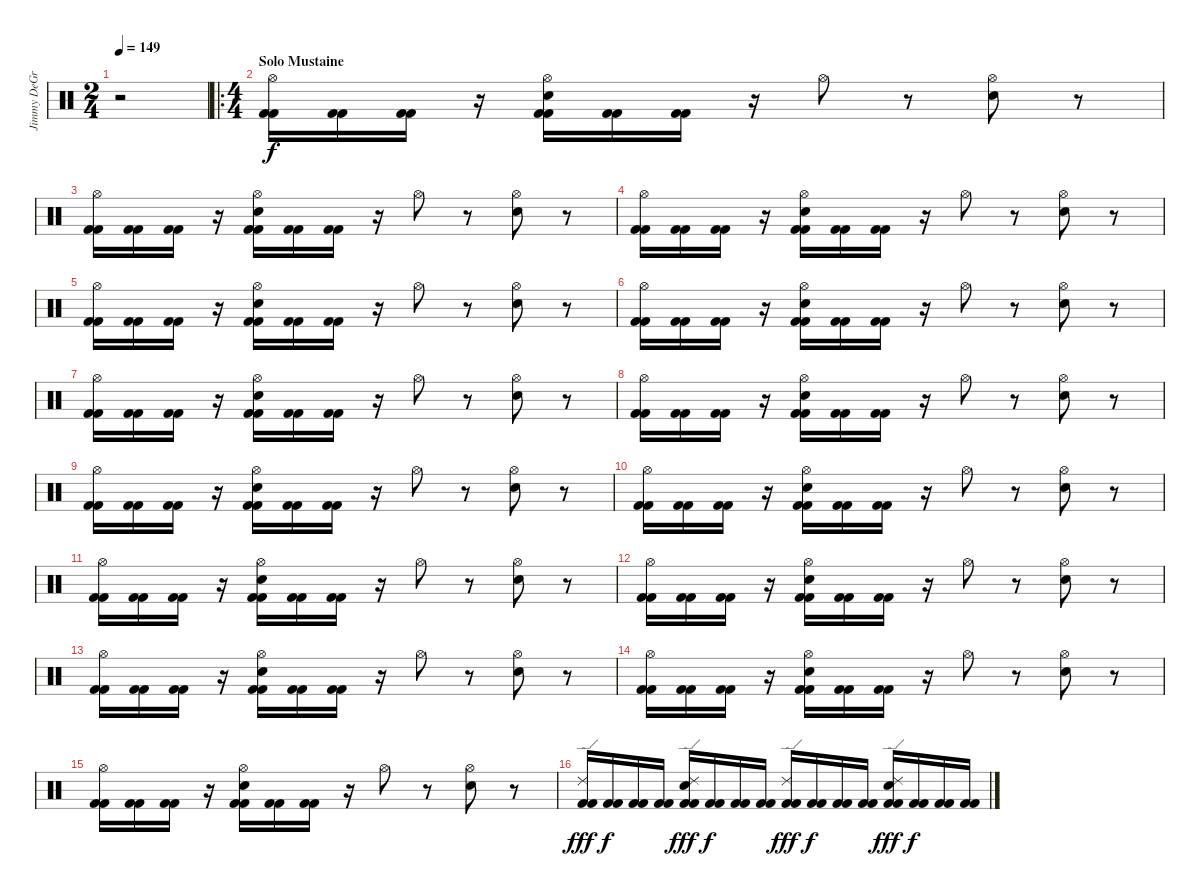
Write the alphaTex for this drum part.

\track ("Jimmy DeGrasso" "Jimmy DeGr") {instrument percussion}
\staff {score}
\articulation defaults
\ts (2 4)
\tempo 149
\clef neutral
\ks c
r.2{dy f} |
\ro
\ts (4 4)
\section ("" "Solo Mustaine")
("Hi-Hat (open)" "Kick (hit) 2" "Kick (hit) 2").16 ("Kick (hit) 2" "Kick (hit) 2").16 ("Kick (hit) 2" "Kick (hit) 2").16 r.16 ("Hi-Hat (open)" "Snare (hit) 2" "Kick (hit) 2" "Kick (hit) 2").16 ("Kick (hit) 2" "Kick (hit) 2").16 ("Kick (hit) 2" "Kick (hit) 2").16 r.16 "Hi-Hat (open)".8 r.8 ("Hi-Hat (open)" "Snare (hit) 2").8 r.8 |
("Hi-Hat (open)" "Kick (hit) 2" "Kick (hit) 2").16 ("Kick (hit) 2" "Kick (hit) 2").16 ("Kick (hit) 2" "Kick (hit) 2").16 r.16 ("Hi-Hat (open)" "Snare (hit) 2" "Kick (hit) 2" "Kick (hit) 2").16 ("Kick (hit) 2" "Kick (hit) 2").16 ("Kick (hit) 2" "Kick (hit) 2").16 r.16 "Hi-Hat (open)".8 r.8 ("Hi-Hat (open)" "Snare (hit) 2").8 r.8 |
("Hi-Hat (open)" "Kick (hit) 2" "Kick (hit) 2").16 ("Kick (hit) 2" "Kick (hit) 2").16 ("Kick (hit) 2" "Kick (hit) 2").16 r.16 ("Hi-Hat (open)" "Snare (hit) 2" "Kick (hit) 2" "Kick (hit) 2").16 ("Kick (hit) 2" "Kick (hit) 2").16 ("Kick (hit) 2" "Kick (hit) 2").16 r.16 "Hi-Hat (open)".8 r.8 ("Hi-Hat (open)" "Snare (hit) 2").8 r.8 |
("Hi-Hat (open)" "Kick (hit) 2" "Kick (hit) 2").16 ("Kick (hit) 2" "Kick (hit) 2").16 ("Kick (hit) 2" "Kick (hit) 2").16 r.16 ("Hi-Hat (open)" "Snare (hit) 2" "Kick (hit) 2" "Kick (hit) 2").16 ("Kick (hit) 2" "Kick (hit) 2").16 ("Kick (hit) 2" "Kick (hit) 2").16 r.16 "Hi-Hat (open)".8 r.8 ("Hi-Hat (open)" "Snare (hit) 2").8 r.8 |
("Hi-Hat (open)" "Kick (hit) 2" "Kick (hit) 2").16 ("Kick (hit) 2" "Kick (hit) 2").16 ("Kick (hit) 2" "Kick (hit) 2").16 r.16 ("Hi-Hat (open)" "Snare (hit) 2" "Kick (hit) 2" "Kick (hit) 2").16 ("Kick (hit) 2" "Kick (hit) 2").16 ("Kick (hit) 2" "Kick (hit) 2").16 r.16 "Hi-Hat (open)".8 r.8 ("Hi-Hat (open)" "Snare (hit) 2").8 r.8 |
("Hi-Hat (open)" "Kick (hit) 2" "Kick (hit) 2").16 ("Kick (hit) 2" "Kick (hit) 2").16 ("Kick (hit) 2" "Kick (hit) 2").16 r.16 ("Hi-Hat (open)" "Snare (hit) 2" "Kick (hit) 2" "Kick (hit) 2").16 ("Kick (hit) 2" "Kick (hit) 2").16 ("Kick (hit) 2" "Kick (hit) 2").16 r.16 "Hi-Hat (open)".8 r.8 ("Hi-Hat (open)" "Snare (hit) 2").8 r.8 |
("Hi-Hat (open)" "Kick (hit) 2" "Kick (hit) 2").16 ("Kick (hit) 2" "Kick (hit) 2").16 ("Kick (hit) 2" "Kick (hit) 2").16 r.16 ("Hi-Hat (open)" "Snare (hit) 2" "Kick (hit) 2" "Kick (hit) 2").16 ("Kick (hit) 2" "Kick (hit) 2").16 ("Kick (hit) 2" "Kick (hit) 2").16 r.16 "Hi-Hat (open)".8 r.8 ("Hi-Hat (open)" "Snare (hit) 2").8 r.8 |
("Hi-Hat (open)" "Kick (hit) 2" "Kick (hit) 2").16 ("Kick (hit) 2" "Kick (hit) 2").16 ("Kick (hit) 2" "Kick (hit) 2").16 r.16 ("Hi-Hat (open)" "Snare (hit) 2" "Kick (hit) 2" "Kick (hit) 2").16 ("Kick (hit) 2" "Kick (hit) 2").16 ("Kick (hit) 2" "Kick (hit) 2").16 r.16 "Hi-Hat (open)".8 r.8 ("Hi-Hat (open)" "Snare (hit) 2").8 r.8 |
("Hi-Hat (open)" "Kick (hit) 2" "Kick (hit) 2").16 ("Kick (hit) 2" "Kick (hit) 2").16 ("Kick (hit) 2" "Kick (hit) 2").16 r.16 ("Hi-Hat (open)" "Snare (hit) 2" "Kick (hit) 2" "Kick (hit) 2").16 ("Kick (hit) 2" "Kick (hit) 2").16 ("Kick (hit) 2" "Kick (hit) 2").16 r.16 "Hi-Hat (open)".8 r.8 ("Hi-Hat (open)" "Snare (hit) 2").8 r.8 |
("Hi-Hat (open)" "Kick (hit) 2" "Kick (hit) 2").16 ("Kick (hit) 2" "Kick (hit) 2").16 ("Kick (hit) 2" "Kick (hit) 2").16 r.16 ("Hi-Hat (open)" "Snare (hit) 2" "Kick (hit) 2" "Kick (hit) 2").16 ("Kick (hit) 2" "Kick (hit) 2").16 ("Kick (hit) 2" "Kick (hit) 2").16 r.16 "Hi-Hat (open)".8 r.8 ("Hi-Hat (open)" "Snare (hit) 2").8 r.8 |
("Hi-Hat (open)" "Kick (hit) 2" "Kick (hit) 2").16 ("Kick (hit) 2" "Kick (hit) 2").16 ("Kick (hit) 2" "Kick (hit) 2").16 r.16 ("Hi-Hat (open)" "Snare (hit) 2" "Kick (hit) 2" "Kick (hit) 2").16 ("Kick (hit) 2" "Kick (hit) 2").16 ("Kick (hit) 2" "Kick (hit) 2").16 r.16 "Hi-Hat (open)".8 r.8 ("Hi-Hat (open)" "Snare (hit) 2").8 r.8 |
("Hi-Hat (open)" "Kick (hit) 2" "Kick (hit) 2").16 ("Kick (hit) 2" "Kick (hit) 2").16 ("Kick (hit) 2" "Kick (hit) 2").16 r.16 ("Hi-Hat (open)" "Snare (hit) 2" "Kick (hit) 2" "Kick (hit) 2").16 ("Kick (hit) 2" "Kick (hit) 2").16 ("Kick (hit) 2" "Kick (hit) 2").16 r.16 "Hi-Hat (open)".8 r.8 ("Hi-Hat (open)" "Snare (hit) 2").8 r.8 |
("Hi-Hat (open)" "Kick (hit) 2" "Kick (hit) 2").16 ("Kick (hit) 2" "Kick (hit) 2").16 ("Kick (hit) 2" "Kick (hit) 2").16 r.16 ("Hi-Hat (open)" "Snare (hit) 2" "Kick (hit) 2" "Kick (hit) 2").16 ("Kick (hit) 2" "Kick (hit) 2").16 ("Kick (hit) 2" "Kick (hit) 2").16 r.16 "Hi-Hat (open)".8 r.8 ("Hi-Hat (open)" "Snare (hit) 2").8 r.8 |
("Hi-Hat (open)" "Kick (hit) 2" "Kick (hit) 2").16 ("Kick (hit) 2" "Kick (hit) 2").16 ("Kick (hit) 2" "Kick (hit) 2").16 r.16 ("Hi-Hat (open)" "Snare (hit) 2" "Kick (hit) 2" "Kick (hit) 2").16 ("Kick (hit) 2" "Kick (hit) 2").16 ("Kick (hit) 2" "Kick (hit) 2").16 r.16 "Hi-Hat (open)".8 r.8 ("Hi-Hat (open)" "Snare (hit) 2").8 r.8 |
("Ride (edge) 2" "Kick (hit) 2" "Kick (hit) 2").16{dy fff} ("Kick (hit) 2" "Kick (hit) 2").16{dy f} ("Kick (hit) 2" "Kick (hit) 2").16 ("Kick (hit) 2" "Kick (hit) 2").16 ("Ride (edge) 2" "Snare (hit) 2" "Kick (hit) 2" "Kick (hit) 2").16{dy fff} ("Kick (hit) 2" "Kick (hit) 2").16{dy f} ("Kick (hit) 2" "Kick (hit) 2").16 ("Kick (hit) 2" "Kick (hit) 2").16 ("Ride (edge) 2" "Kick (hit) 2" "Kick (hit) 2").16{dy fff} ("Kick (hit) 2" "Kick (hit) 2").16{dy f} ("Kick (hit) 2" "Kick (hit) 2").16 ("Kick (hit) 2" "Kick (hit) 2").16 ("Ride (edge) 2" "Snare (hit) 2" "Kick (hit) 2" "Kick (hit) 2").16{dy fff} ("Kick (hit) 2" "Kick (hit) 2").16{dy f} ("Kick (hit) 2" "Kick (hit) 2").16 ("Kick (hit) 2" "Kick (hit) 2").16
